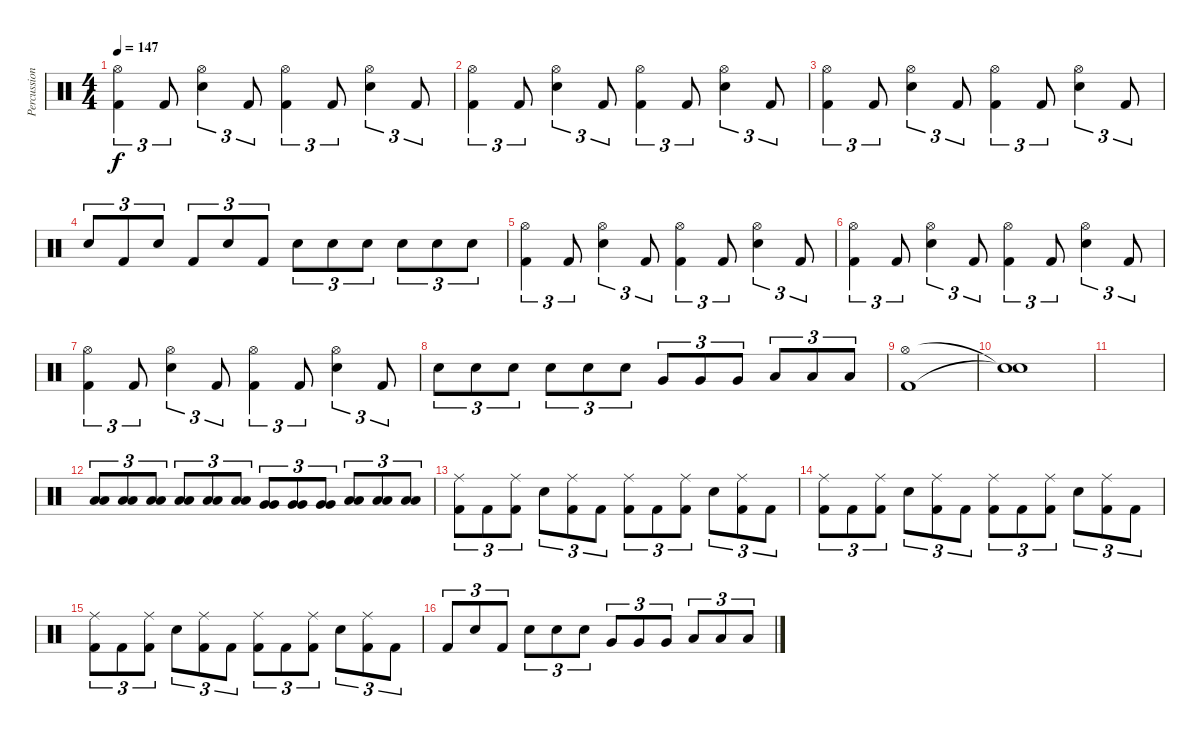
\track ("Percussion" "Percussion") {instrument percussion}
\staff {score}
\articulation defaults
\ts (4 4)
\tempo 147
\clef neutral
\ks c
("Hi-Hat (open)" "Kick (hit) 2").4{tu (3 2) dy f} "Kick (hit) 2".8{tu (3 2)} ("Electric Snare (hit)" "Hi-Hat (open)").4{tu (3 2)} "Kick (hit) 2".8{tu (3 2)} ("Hi-Hat (open)" "Kick (hit) 2").4{tu (3 2)} "Kick (hit) 2".8{tu (3 2)} ("Electric Snare (hit)" "Hi-Hat (open)").4{tu (3 2)} "Kick (hit) 2".8{tu (3 2)} |
("Hi-Hat (open)" "Kick (hit) 2").4{tu (3 2)} "Kick (hit) 2".8{tu (3 2)} ("Electric Snare (hit)" "Hi-Hat (open)").4{tu (3 2)} "Kick (hit) 2".8{tu (3 2)} ("Hi-Hat (open)" "Kick (hit) 2").4{tu (3 2)} "Kick (hit) 2".8{tu (3 2)} ("Electric Snare (hit)" "Hi-Hat (open)").4{tu (3 2)} "Kick (hit) 2".8{tu (3 2)} |
("Hi-Hat (open)" "Kick (hit) 2").4{tu (3 2)} "Kick (hit) 2".8{tu (3 2)} ("Electric Snare (hit)" "Hi-Hat (open)").4{tu (3 2)} "Kick (hit) 2".8{tu (3 2)} ("Hi-Hat (open)" "Kick (hit) 2").4{tu (3 2)} "Kick (hit) 2".8{tu (3 2)} ("Electric Snare (hit)" "Hi-Hat (open)").4{tu (3 2)} "Kick (hit) 2".8{tu (3 2)} |
"Electric Snare (hit)".8{tu (3 2)} "Kick (hit) 2".8{tu (3 2)} "Electric Snare (hit)".8{tu (3 2)} "Kick (hit) 2".8{tu (3 2)} "Electric Snare (hit)".8{tu (3 2)} "Kick (hit) 2".8{tu (3 2)} "Electric Snare (hit)".8{tu (3 2)} "Electric Snare (hit)".8{tu (3 2)} "Electric Snare (hit)".8{tu (3 2)} "Electric Snare (hit)".8{tu (3 2)} "Electric Snare (hit)".8{tu (3 2)} "Electric Snare (hit)".8{tu (3 2)} |
("Hi-Hat (open)" "Kick (hit) 2").4{tu (3 2)} "Kick (hit) 2".8{tu (3 2)} ("Electric Snare (hit)" "Hi-Hat (open)").4{tu (3 2)} "Kick (hit) 2".8{tu (3 2)} ("Hi-Hat (open)" "Kick (hit) 2").4{tu (3 2)} "Kick (hit) 2".8{tu (3 2)} ("Electric Snare (hit)" "Hi-Hat (open)").4{tu (3 2)} "Kick (hit) 2".8{tu (3 2)} |
("Hi-Hat (open)" "Kick (hit) 2").4{tu (3 2)} "Kick (hit) 2".8{tu (3 2)} ("Electric Snare (hit)" "Hi-Hat (open)").4{tu (3 2)} "Kick (hit) 2".8{tu (3 2)} ("Hi-Hat (open)" "Kick (hit) 2").4{tu (3 2)} "Kick (hit) 2".8{tu (3 2)} ("Electric Snare (hit)" "Hi-Hat (open)").4{tu (3 2)} "Kick (hit) 2".8{tu (3 2)} |
("Hi-Hat (open)" "Kick (hit) 2").4{tu (3 2)} "Kick (hit) 2".8{tu (3 2)} ("Electric Snare (hit)" "Hi-Hat (open)").4{tu (3 2)} "Kick (hit) 2".8{tu (3 2)} ("Hi-Hat (open)" "Kick (hit) 2").4{tu (3 2)} "Kick (hit) 2".8{tu (3 2)} ("Electric Snare (hit)" "Hi-Hat (open)").4{tu (3 2)} "Kick (hit) 2".8{tu (3 2)} |
"Electric Snare (hit)".8{tu (3 2)} "Electric Snare (hit)".8{tu (3 2)} "Electric Snare (hit)".8{tu (3 2)} "Electric Snare (hit)".8{tu (3 2)} "Electric Snare (hit)".8{tu (3 2)} "Electric Snare (hit)".8{tu (3 2)} "Very Low Tom (hit)".8{tu (3 2)} "Very Low Tom (hit)".8{tu (3 2)} "Very Low Tom (hit)".8{tu (3 2)} "Low Floor Tom (hit)".8{tu (3 2)} "Low Floor Tom (hit)".8{tu (3 2)} "Low Floor Tom (hit)".8{tu (3 2)} |
("Hi-Hat (open)" "Kick (hit) 2").1 |
("Snare (hit)"{t} "Snare (hit)"{t}).1 |
|
("Low Tom (hit)" "Low Tom (hit)").8{tu (3 2)} ("Low Tom (hit)" "Low Tom (hit)").8{tu (3 2)} ("Low Tom (hit)" "Low Tom (hit)").8{tu (3 2)} ("Low Tom (hit)" "Low Tom (hit)").8{tu (3 2)} ("Low Tom (hit)" "Low Tom (hit)").8{tu (3 2)} ("Low Tom (hit)" "Low Tom (hit)").8{tu (3 2)} ("Very Low Tom (hit)" "Very Low Tom (hit)").8{tu (3 2)} ("Very Low Tom (hit)" "Very Low Tom (hit)").8{tu (3 2)} ("Very Low Tom (hit)" "Very Low Tom (hit)").8{tu (3 2)} ("Low Floor Tom (hit)" "Low Floor Tom (hit)").8{tu (3 2)} ("Low Floor Tom (hit)" "Low Floor Tom (hit)").8{tu (3 2)} ("Low Floor Tom (hit)" "Low Floor Tom (hit)").8{tu (3 2)} |
("Ride (middle)" "Kick (hit) 2").8{tu (3 2)} "Kick (hit) 2".8{tu (3 2)} ("Ride (middle)" "Kick (hit) 2").8{tu (3 2)} "Electric Snare (hit)".8{tu (3 2)} ("Ride (middle)" "Kick (hit) 2").8{tu (3 2)} "Kick (hit) 2".8{tu (3 2)} ("Ride (middle)" "Kick (hit) 2").8{tu (3 2)} "Kick (hit) 2".8{tu (3 2)} ("Ride (middle)" "Kick (hit) 2").8{tu (3 2)} "Electric Snare (hit)".8{tu (3 2)} ("Ride (middle)" "Kick (hit) 2").8{tu (3 2)} "Kick (hit) 2".8{tu (3 2)} |
("Ride (middle)" "Kick (hit) 2").8{tu (3 2)} "Kick (hit) 2".8{tu (3 2)} ("Ride (middle)" "Kick (hit) 2").8{tu (3 2)} "Electric Snare (hit)".8{tu (3 2)} ("Ride (middle)" "Kick (hit) 2").8{tu (3 2)} "Kick (hit) 2".8{tu (3 2)} ("Ride (middle)" "Kick (hit) 2").8{tu (3 2)} "Kick (hit) 2".8{tu (3 2)} ("Ride (middle)" "Kick (hit) 2").8{tu (3 2)} "Electric Snare (hit)".8{tu (3 2)} ("Ride (middle)" "Kick (hit) 2").8{tu (3 2)} "Kick (hit) 2".8{tu (3 2)} |
("Ride (middle)" "Kick (hit) 2").8{tu (3 2)} "Kick (hit) 2".8{tu (3 2)} ("Ride (middle)" "Kick (hit) 2").8{tu (3 2)} "Electric Snare (hit)".8{tu (3 2)} ("Ride (middle)" "Kick (hit) 2").8{tu (3 2)} "Kick (hit) 2".8{tu (3 2)} ("Ride (middle)" "Kick (hit) 2").8{tu (3 2)} "Kick (hit) 2".8{tu (3 2)} ("Ride (middle)" "Kick (hit) 2").8{tu (3 2)} "Electric Snare (hit)".8{tu (3 2)} ("Ride (middle)" "Kick (hit) 2").8{tu (3 2)} "Kick (hit) 2".8{tu (3 2)} |
"Kick (hit) 2".8{tu (3 2)} "Electric Snare (hit)".8{tu (3 2)} "Kick (hit) 2".8{tu (3 2)} "Electric Snare (hit)".8{tu (3 2)} "Electric Snare (hit)".8{tu (3 2)} "Electric Snare (hit)".8{tu (3 2)} "Very Low Tom (hit)".8{tu (3 2)} "Very Low Tom (hit)".8{tu (3 2)} "Very Low Tom (hit)".8{tu (3 2)} "Low Floor Tom (hit)".8{tu (3 2)} "Low Floor Tom (hit)".8{tu (3 2)} "Low Floor Tom (hit)".8{tu (3 2)}
